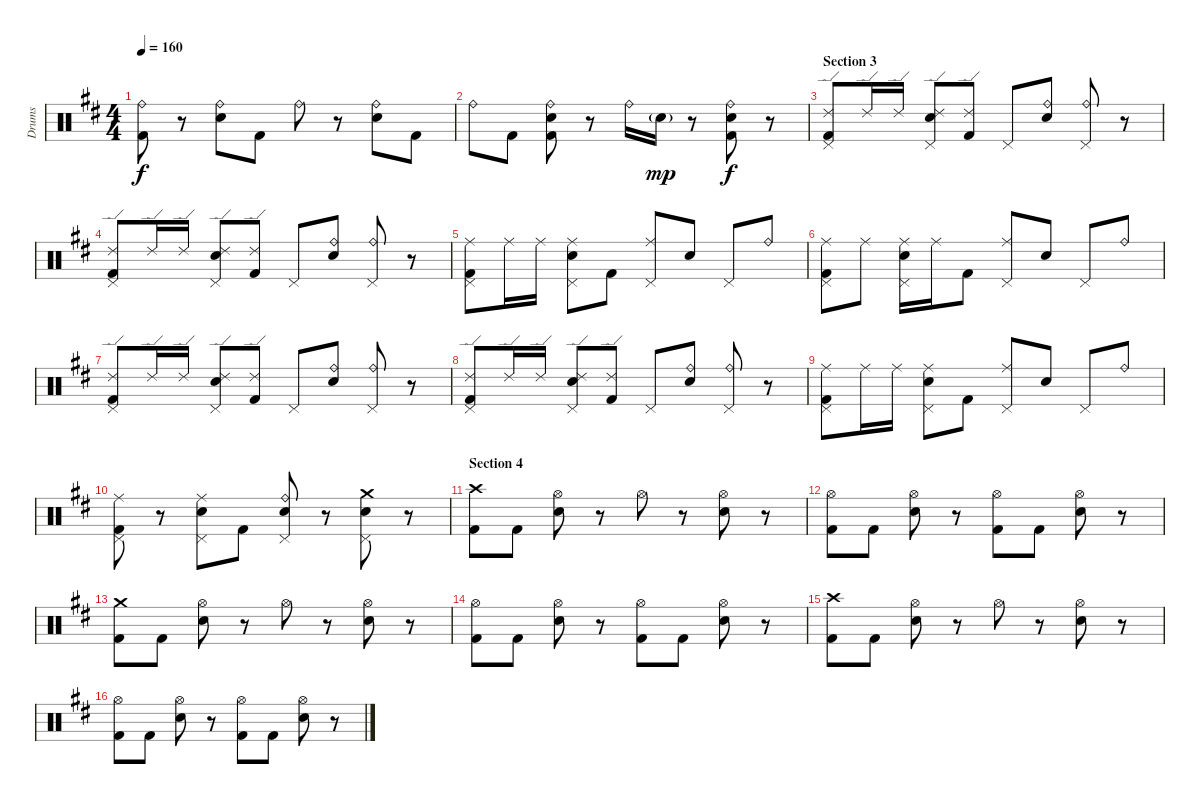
\track ("Drums" "Drums") {instrument percussion}
\staff {score}
\articulation defaults
\ts (4 4)
\tempo 160
\clef neutral
\ks bminor
("Ride (bell)" "Kick (hit) 2").8{dy f} r.8 ("Ride (bell)" "Snare (hit) 2").8 "Kick (hit) 2".8 "Ride (bell)".8 r.8 ("Ride (bell)" "Snare (hit) 2").8 "Kick (hit) 2".8 |
"Ride (bell)".8 "Kick (hit) 2".8 ("Ride (bell)" "Snare (hit) 2" "Kick (hit) 2").8 r.8 "Ride (bell)".16 "Snare (hit) 2"{g}.16{dy mp} r.8 ("Ride (bell)" "Snare (hit) 2" "Kick (hit) 2").8{dy f} r.8 |
\section ("" "Section 3")
("Ride (edge) 2" "Pedal Hi-Hat (hit)" "Kick (hit) 2").8 "Ride (edge) 2".16 "Ride (edge) 2".16 ("Ride (edge) 2" "Pedal Hi-Hat (hit)" "Snare (hit) 2").8 ("Ride (edge) 2" "Kick (hit) 2").8 "Pedal Hi-Hat (hit)".8 ("Ride (bell)" "Snare (hit) 2").8 ("Ride (bell)" "Pedal Hi-Hat (hit)").8 r.8 |
("Ride (edge) 2" "Pedal Hi-Hat (hit)" "Kick (hit) 2").8 "Ride (edge) 2".16 "Ride (edge) 2".16 ("Ride (edge) 2" "Pedal Hi-Hat (hit)" "Snare (hit) 2").8 ("Ride (edge) 2" "Kick (hit) 2").8 "Pedal Hi-Hat (hit)".8 ("Ride (bell)" "Snare (hit) 2").8 ("Ride (bell)" "Pedal Hi-Hat (hit)").8 r.8 |
("Ride (middle)" "Pedal Hi-Hat (hit)" "Kick (hit) 2").8 "Ride (middle)".16 "Ride (middle)".16 ("Ride (middle)" "Pedal Hi-Hat (hit)" "Snare (hit) 2").8 "Kick (hit) 2".8 ("Ride (middle)" "Pedal Hi-Hat (hit)").8 "Snare (hit) 2".8 "Pedal Hi-Hat (hit)".8 "Ride (bell)".8 |
("Ride (middle)" "Pedal Hi-Hat (hit)" "Kick (hit) 2").8 "Ride (middle)".8 ("Ride (middle)" "Pedal Hi-Hat (hit)" "Snare (hit) 2").16 "Ride (middle)".16 "Kick (hit) 2".8 ("Ride (middle)" "Pedal Hi-Hat (hit)").8 "Snare (hit) 2".8 "Pedal Hi-Hat (hit)".8 "Ride (bell)".8 |
("Ride (edge) 2" "Pedal Hi-Hat (hit)" "Kick (hit) 2").8 "Ride (edge) 2".16 "Ride (edge) 2".16 ("Ride (edge) 2" "Pedal Hi-Hat (hit)" "Snare (hit) 2").8 ("Ride (edge) 2" "Kick (hit) 2").8 "Pedal Hi-Hat (hit)".8 ("Ride (bell)" "Snare (hit) 2").8 ("Ride (bell)" "Pedal Hi-Hat (hit)").8 r.8 |
("Ride (edge) 2" "Pedal Hi-Hat (hit)" "Kick (hit) 2").8 "Ride (edge) 2".16 "Ride (edge) 2".16 ("Ride (edge) 2" "Pedal Hi-Hat (hit)" "Snare (hit) 2").8 ("Ride (edge) 2" "Kick (hit) 2").8 "Pedal Hi-Hat (hit)".8 ("Ride (bell)" "Snare (hit) 2").8 ("Ride (bell)" "Pedal Hi-Hat (hit)").8 r.8 |
("Ride (middle)" "Pedal Hi-Hat (hit)" "Kick (hit) 2").8 "Ride (middle)".16 "Ride (middle)".16 ("Ride (middle)" "Pedal Hi-Hat (hit)" "Snare (hit) 2").8 "Kick (hit) 2".8 ("Ride (middle)" "Pedal Hi-Hat (hit)").8 "Snare (hit) 2".8 "Pedal Hi-Hat (hit)".8 "Ride (bell)".8 |
("Ride (middle)" "Pedal Hi-Hat (hit)" "Kick (hit) 2").8 r.8 ("Ride (middle)" "Pedal Hi-Hat (hit)" "Snare (hit) 2").8 "Kick (hit) 2".8 ("Ride (bell)" "Pedal Hi-Hat (hit)" "Snare (hit) 2").8 r.8 ("Crash medium (hit)" "Pedal Hi-Hat (hit)" "Snare (hit) 2").8 r.8 |
\section ("" "Section 4")
("Crash high (hit)" "Kick (hit) 2").8 "Kick (hit) 2".8 ("Hi-Hat (open)" "Snare (hit) 2").8 r.8 "Hi-Hat (open)".8 r.8 ("Hi-Hat (open)" "Snare (hit) 2").8 r.8 |
("Hi-Hat (open)" "Kick (hit) 2").8 "Kick (hit) 2".8 ("Hi-Hat (open)" "Snare (hit) 2").8 r.8 ("Hi-Hat (open)" "Kick (hit) 2").8 "Kick (hit) 2".8 ("Hi-Hat (open)" "Snare (hit) 2").8 r.8 |
("Crash medium (hit)" "Kick (hit) 2").8 "Kick (hit) 2".8 ("Hi-Hat (open)" "Snare (hit) 2").8 r.8 "Hi-Hat (open)".8 r.8 ("Hi-Hat (open)" "Snare (hit) 2").8 r.8 |
("Hi-Hat (open)" "Kick (hit) 2").8 "Kick (hit) 2".8 ("Hi-Hat (open)" "Snare (hit) 2").8 r.8 ("Hi-Hat (open)" "Kick (hit) 2").8 "Kick (hit) 2".8 ("Hi-Hat (open)" "Snare (hit) 2").8 r.8 |
("Crash high (hit)" "Kick (hit) 2").8 "Kick (hit) 2".8 ("Hi-Hat (open)" "Snare (hit) 2").8 r.8 "Hi-Hat (open)".8 r.8 ("Hi-Hat (open)" "Snare (hit) 2").8 r.8 |
("Hi-Hat (open)" "Kick (hit) 2").8 "Kick (hit) 2".8 ("Hi-Hat (open)" "Snare (hit) 2").8 r.8 ("Hi-Hat (open)" "Kick (hit) 2").8 "Kick (hit) 2".8 ("Hi-Hat (open)" "Snare (hit) 2").8 r.8
